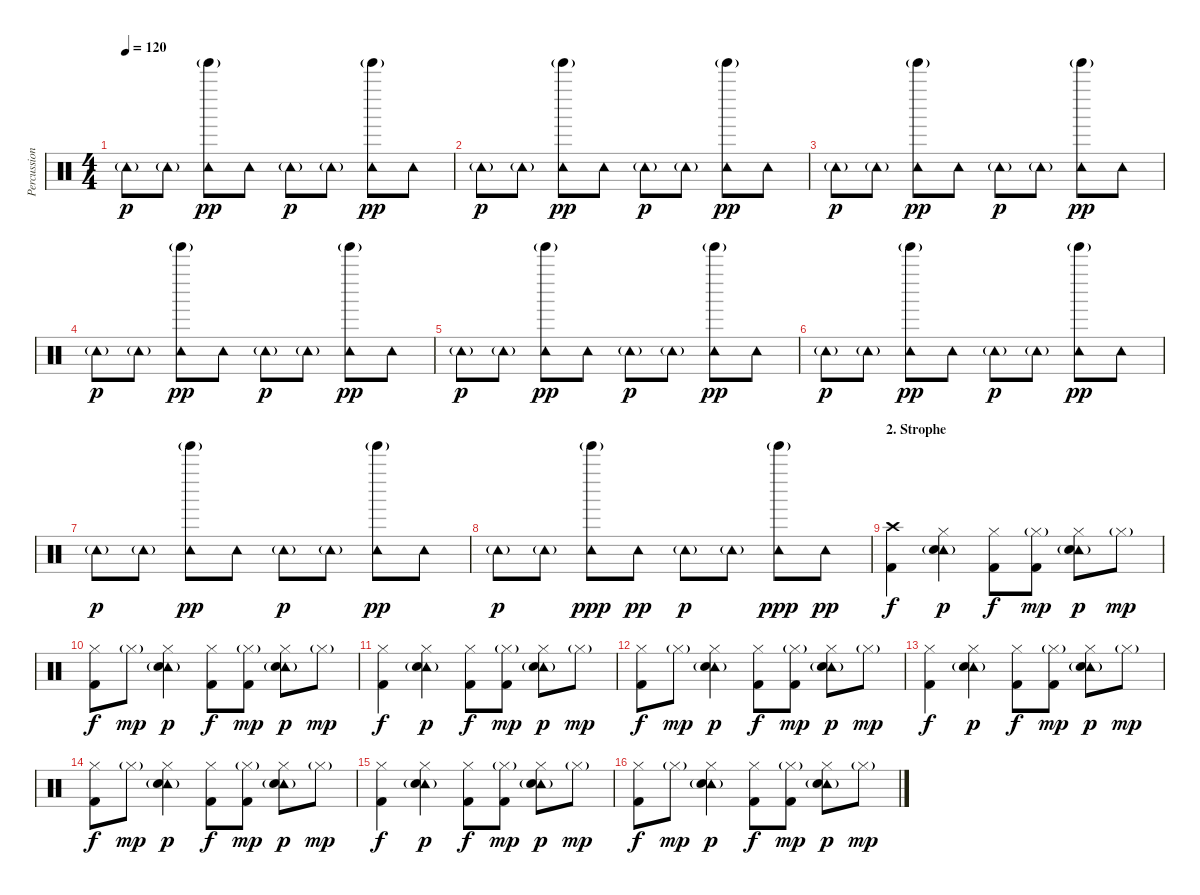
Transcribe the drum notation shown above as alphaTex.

\track ("Percussion     E" "Percussion") {instrument percussion}
\staff {score}
\articulation defaults
\ts (4 4)
\tempo 120
\clef neutral
\ks c "Tambourine (hit)"{g}.8{dy p} "Tambourine (hit)"{g}.8
("Tambourine (hit)" "Tinkle Bell (hit)"{g}).8{dy pp} "Tambourine (hit)".8 "Tambourine (hit)"{g}.8{dy p} "Tambourine (hit)"{g}.8 ("Tambourine (hit)" "Tinkle Bell (hit)"{g}).8{dy pp} "Tambourine (hit)".8 |
"Tambourine (hit)"{g}.8{dy p} "Tambourine (hit)"{g}.8 ("Tambourine (hit)" "Tinkle Bell (hit)"{g}).8{dy pp} "Tambourine (hit)".8 "Tambourine (hit)"{g}.8{dy p} "Tambourine (hit)"{g}.8 ("Tambourine (hit)" "Tinkle Bell (hit)"{g}).8{dy pp} "Tambourine (hit)".8 |
"Tambourine (hit)"{g}.8{dy p} "Tambourine (hit)"{g}.8 ("Tambourine (hit)" "Tinkle Bell (hit)"{g}).8{dy pp} "Tambourine (hit)".8 "Tambourine (hit)"{g}.8{dy p} "Tambourine (hit)"{g}.8 ("Tambourine (hit)" "Tinkle Bell (hit)"{g}).8{dy pp} "Tambourine (hit)".8 |
"Tambourine (hit)"{g}.8{dy p} "Tambourine (hit)"{g}.8 ("Tambourine (hit)" "Tinkle Bell (hit)"{g}).8{dy pp} "Tambourine (hit)".8 "Tambourine (hit)"{g}.8{dy p} "Tambourine (hit)"{g}.8 ("Tambourine (hit)" "Tinkle Bell (hit)"{g}).8{dy pp} "Tambourine (hit)".8 |
"Tambourine (hit)"{g}.8{dy p} "Tambourine (hit)"{g}.8 ("Tambourine (hit)" "Tinkle Bell (hit)"{g}).8{dy pp} "Tambourine (hit)".8 "Tambourine (hit)"{g}.8{dy p} "Tambourine (hit)"{g}.8 ("Tambourine (hit)" "Tinkle Bell (hit)"{g}).8{dy pp} "Tambourine (hit)".8 |
"Tambourine (hit)"{g}.8{dy p} "Tambourine (hit)"{g}.8 ("Tambourine (hit)" "Tinkle Bell (hit)"{g}).8{dy pp} "Tambourine (hit)".8 "Tambourine (hit)"{g}.8{dy p} "Tambourine (hit)"{g}.8 ("Tambourine (hit)" "Tinkle Bell (hit)"{g}).8{dy pp} "Tambourine (hit)".8 |
"Tambourine (hit)"{g}.8{dy p} "Tambourine (hit)"{g}.8 ("Tambourine (hit)" "Tinkle Bell (hit)"{g}).8{dy pp} "Tambourine (hit)".8 "Tambourine (hit)"{g}.8{dy p} "Tambourine (hit)"{g}.8 ("Tambourine (hit)" "Tinkle Bell (hit)"{g}).8{dy pp} "Tambourine (hit)".8 |
"Tambourine (hit)"{g}.8{dy p} "Tambourine (hit)"{g}.8 ("Tambourine (hit)" "Tinkle Bell (hit)"{g}).8{dy ppp} "Tambourine (hit)".8{dy pp} "Tambourine (hit)"{g}.8{dy p} "Tambourine (hit)"{g}.8 ("Tambourine (hit)" "Tinkle Bell (hit)"{g}).8{dy ppp} "Tambourine (hit)".8{dy pp} |
\section ("" "2. Strophe")
("Crash high (hit)" "Kick (hit) 2").4{dy f} ("Hi-Hat (closed)" "Tambourine (hit)"{g} "Electric Snare (hit)").4{dy p} ("Hi-Hat (closed)" "Kick (hit) 2").8{dy f} ("Hi-Hat (closed)"{g} "Kick (hit) 2").8{dy mp} ("Hi-Hat (closed)" "Tambourine (hit)"{g} "Electric Snare (hit)").8{dy p} "Hi-Hat (closed)"{g}.8{dy mp} |
("Hi-Hat (closed)" "Kick (hit) 2").8{dy f} "Hi-Hat (closed)"{g}.8{dy mp} ("Hi-Hat (closed)" "Tambourine (hit)"{g} "Electric Snare (hit)").4{dy p} ("Hi-Hat (closed)" "Kick (hit) 2").8{dy f} ("Hi-Hat (closed)"{g} "Kick (hit) 2").8{dy mp} ("Hi-Hat (closed)" "Tambourine (hit)"{g} "Electric Snare (hit)").8{dy p} "Hi-Hat (closed)"{g}.8{dy mp} |
("Hi-Hat (closed)" "Kick (hit) 2").4{dy f} ("Hi-Hat (closed)" "Tambourine (hit)"{g} "Electric Snare (hit)").4{dy p} ("Hi-Hat (closed)" "Kick (hit) 2").8{dy f} ("Hi-Hat (closed)"{g} "Kick (hit) 2").8{dy mp} ("Hi-Hat (closed)" "Tambourine (hit)"{g} "Electric Snare (hit)").8{dy p} "Hi-Hat (closed)"{g}.8{dy mp} |
("Hi-Hat (closed)" "Kick (hit) 2").8{dy f} "Hi-Hat (closed)"{g}.8{dy mp} ("Hi-Hat (closed)" "Tambourine (hit)"{g} "Electric Snare (hit)").4{dy p} ("Hi-Hat (closed)" "Kick (hit) 2").8{dy f} ("Hi-Hat (closed)"{g} "Kick (hit) 2").8{dy mp} ("Hi-Hat (closed)" "Tambourine (hit)"{g} "Electric Snare (hit)").8{dy p} "Hi-Hat (closed)"{g}.8{dy mp} |
("Hi-Hat (closed)" "Kick (hit) 2").4{dy f} ("Hi-Hat (closed)" "Tambourine (hit)"{g} "Electric Snare (hit)").4{dy p} ("Hi-Hat (closed)" "Kick (hit) 2").8{dy f} ("Hi-Hat (closed)"{g} "Kick (hit) 2").8{dy mp} ("Hi-Hat (closed)" "Tambourine (hit)"{g} "Electric Snare (hit)").8{dy p} "Hi-Hat (closed)"{g}.8{dy mp} |
("Hi-Hat (closed)" "Kick (hit) 2").8{dy f} "Hi-Hat (closed)"{g}.8{dy mp} ("Hi-Hat (closed)" "Tambourine (hit)"{g} "Electric Snare (hit)").4{dy p} ("Hi-Hat (closed)" "Kick (hit) 2").8{dy f} ("Hi-Hat (closed)"{g} "Kick (hit) 2").8{dy mp} ("Hi-Hat (closed)" "Tambourine (hit)"{g} "Electric Snare (hit)").8{dy p} "Hi-Hat (closed)"{g}.8{dy mp} |
("Hi-Hat (closed)" "Kick (hit) 2").4{dy f} ("Hi-Hat (closed)" "Tambourine (hit)"{g} "Electric Snare (hit)").4{dy p} ("Hi-Hat (closed)" "Kick (hit) 2").8{dy f} ("Hi-Hat (closed)"{g} "Kick (hit) 2").8{dy mp} ("Hi-Hat (closed)" "Tambourine (hit)"{g} "Electric Snare (hit)").8{dy p} "Hi-Hat (closed)"{g}.8{dy mp} |
("Hi-Hat (closed)" "Kick (hit) 2").8{dy f} "Hi-Hat (closed)"{g}.8{dy mp} ("Hi-Hat (closed)" "Tambourine (hit)"{g} "Electric Snare (hit)").4{dy p} ("Hi-Hat (closed)" "Kick (hit) 2").8{dy f} ("Hi-Hat (closed)"{g} "Kick (hit) 2").8{dy mp} ("Hi-Hat (closed)" "Tambourine (hit)"{g} "Electric Snare (hit)").8{dy p} "Hi-Hat (closed)"{g}.8{dy mp}
